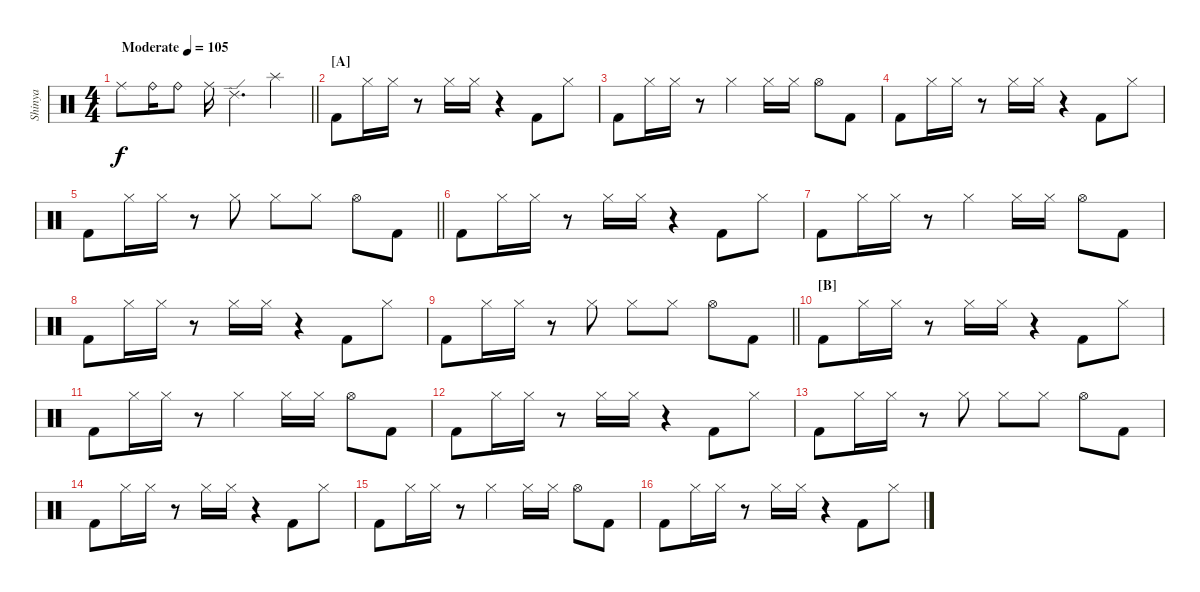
\track ("Shinya" "Shinya") {instrument percussion}
\staff {score}
\articulation defaults
\ts (4 4)
\tempo (105 "Moderate")
\clef neutral
\barLineRight lightlight
\ks c "Ride (middle)".8{dy f} "Ride (bell)".16 "Ride (bell)".8 "Ride (middle)".16 "Ride (edge) 2".4{d} "Splash (hit)".4
|
\section ("" "[A]")
"Kick (hit) 2".8 "Hi-Hat (closed)".16 "Hi-Hat (closed)".16 r.8 "Hi-Hat (closed)".16 "Hi-Hat (closed)".16 r.4 "Kick (hit) 2".8 "Hi-Hat (closed)".8 |
"Kick (hit) 2".8 "Hi-Hat (closed)".16 "Hi-Hat (closed)".16 r.8 "Hi-Hat (closed)".4 "Hi-Hat (closed)".16 "Hi-Hat (closed)".16 "Hi-Hat (open)".8 "Kick (hit) 2".8 |
"Kick (hit) 2".8 "Hi-Hat (closed)".16 "Hi-Hat (closed)".16 r.8 "Hi-Hat (closed)".16 "Hi-Hat (closed)".16 r.4 "Kick (hit) 2".8 "Hi-Hat (closed)".8 |
\barLineRight lightlight "Kick (hit) 2".8 "Hi-Hat (closed)".16 "Hi-Hat (closed)".16
r.8 "Hi-Hat (closed)".8 "Hi-Hat (closed)".8 "Hi-Hat (closed)".8 "Hi-Hat (open)".8 "Kick (hit) 2".8 |
"Kick (hit) 2".8 "Hi-Hat (closed)".16 "Hi-Hat (closed)".16 r.8 "Hi-Hat (closed)".16 "Hi-Hat (closed)".16 r.4 "Kick (hit) 2".8 "Hi-Hat (closed)".8 |
"Kick (hit) 2".8 "Hi-Hat (closed)".16 "Hi-Hat (closed)".16 r.8 "Hi-Hat (closed)".4 "Hi-Hat (closed)".16 "Hi-Hat (closed)".16 "Hi-Hat (open)".8 "Kick (hit) 2".8 |
"Kick (hit) 2".8 "Hi-Hat (closed)".16 "Hi-Hat (closed)".16 r.8 "Hi-Hat (closed)".16 "Hi-Hat (closed)".16 r.4 "Kick (hit) 2".8 "Hi-Hat (closed)".8 |
\barLineRight lightlight "Kick (hit) 2".8 "Hi-Hat (closed)".16 "Hi-Hat (closed)".16
r.8 "Hi-Hat (closed)".8 "Hi-Hat (closed)".8 "Hi-Hat (closed)".8 "Hi-Hat (open)".8 "Kick (hit) 2".8 |
\section ("" "[B]")
"Kick (hit) 2".8 "Hi-Hat (closed)".16 "Hi-Hat (closed)".16 r.8 "Hi-Hat (closed)".16 "Hi-Hat (closed)".16 r.4 "Kick (hit) 2".8 "Hi-Hat (closed)".8 |
"Kick (hit) 2".8 "Hi-Hat (closed)".16 "Hi-Hat (closed)".16 r.8 "Hi-Hat (closed)".4 "Hi-Hat (closed)".16 "Hi-Hat (closed)".16 "Hi-Hat (open)".8 "Kick (hit) 2".8 |
"Kick (hit) 2".8 "Hi-Hat (closed)".16 "Hi-Hat (closed)".16 r.8 "Hi-Hat (closed)".16 "Hi-Hat (closed)".16 r.4 "Kick (hit) 2".8 "Hi-Hat (closed)".8 |
"Kick (hit) 2".8 "Hi-Hat (closed)".16 "Hi-Hat (closed)".16 r.8 "Hi-Hat (closed)".8 "Hi-Hat (closed)".8 "Hi-Hat (closed)".8 "Hi-Hat (open)".8 "Kick (hit) 2".8 |
"Kick (hit) 2".8 "Hi-Hat (closed)".16 "Hi-Hat (closed)".16 r.8 "Hi-Hat (closed)".16 "Hi-Hat (closed)".16 r.4 "Kick (hit) 2".8 "Hi-Hat (closed)".8 |
"Kick (hit) 2".8 "Hi-Hat (closed)".16 "Hi-Hat (closed)".16 r.8 "Hi-Hat (closed)".4 "Hi-Hat (closed)".16 "Hi-Hat (closed)".16 "Hi-Hat (open)".8 "Kick (hit) 2".8 |
"Kick (hit) 2".8 "Hi-Hat (closed)".16 "Hi-Hat (closed)".16 r.8 "Hi-Hat (closed)".16 "Hi-Hat (closed)".16 r.4 "Kick (hit) 2".8 "Hi-Hat (closed)".8
